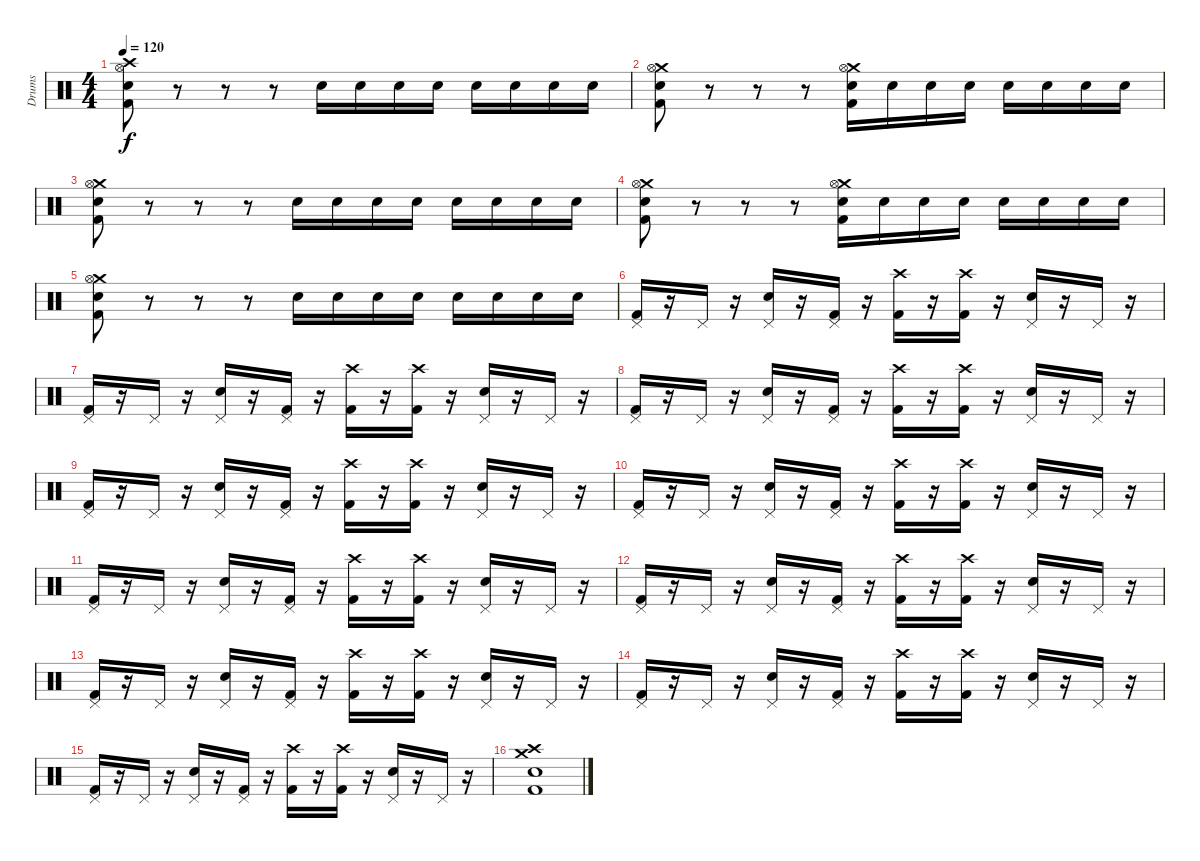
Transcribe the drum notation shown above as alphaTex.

\track ("Drums" "Drums") {instrument percussion}
\staff {score}
\articulation defaults
\ts (4 4)
\tempo 120
\clef neutral
\ks c
("Crash high (hit)" "Hi-Hat (open)" "Snare (hit) 2" "Kick (hit) 2").8{dy f} r.8 r.8 r.8 "Snare (hit) 2".16 "Snare (hit) 2".16 "Snare (hit) 2".16 "Snare (hit) 2".16 "Snare (hit) 2".16 "Snare (hit) 2".16 "Snare (hit) 2".16 "Snare (hit) 2".16 |
("Crash medium (hit)" "Hi-Hat (open)" "Snare (hit) 2" "Kick (hit) 2").8 r.8 r.8 r.8 ("Crash medium (hit)" "Hi-Hat (open)" "Snare (hit) 2" "Kick (hit) 2").16 "Snare (hit) 2".16 "Snare (hit) 2".16 "Snare (hit) 2".16 "Snare (hit) 2".16 "Snare (hit) 2".16 "Snare (hit) 2".16 "Snare (hit) 2".16 |
("Crash medium (hit)" "Hi-Hat (open)" "Snare (hit) 2" "Kick (hit) 2").8 r.8 r.8 r.8 "Snare (hit) 2".16 "Snare (hit) 2".16 "Snare (hit) 2".16 "Snare (hit) 2".16 "Snare (hit) 2".16 "Snare (hit) 2".16 "Snare (hit) 2".16 "Snare (hit) 2".16 |
("Crash medium (hit)" "Hi-Hat (open)" "Snare (hit) 2" "Kick (hit) 2").8 r.8 r.8 r.8 ("Crash medium (hit)" "Hi-Hat (open)" "Snare (hit) 2" "Kick (hit) 2").16 "Snare (hit) 2".16 "Snare (hit) 2".16 "Snare (hit) 2".16 "Snare (hit) 2".16 "Snare (hit) 2".16 "Snare (hit) 2".16 "Snare (hit) 2".16 |
("Crash medium (hit)" "Hi-Hat (open)" "Snare (hit) 2" "Kick (hit) 2").8 r.8 r.8 r.8 "Snare (hit) 2".16 "Snare (hit) 2".16 "Snare (hit) 2".16 "Snare (hit) 2".16 "Snare (hit) 2".16 "Snare (hit) 2".16 "Snare (hit) 2".16 "Snare (hit) 2".16 |
("Pedal Hi-Hat (hit)" "Kick (hit) 2").16 r.16 "Pedal Hi-Hat (hit)".16 r.16 ("Pedal Hi-Hat (hit)" "Snare (hit) 2").16 r.16 ("Pedal Hi-Hat (hit)" "Kick (hit) 2").16 r.16 ("Crash high (hit)" "Kick (hit) 2").16 r.16 ("Crash high (hit)" "Kick (hit) 2").16 r.16 ("Pedal Hi-Hat (hit)" "Snare (hit) 2").16 r.16 "Pedal Hi-Hat (hit)".16 r.16 |
("Pedal Hi-Hat (hit)" "Kick (hit) 2").16 r.16 "Pedal Hi-Hat (hit)".16 r.16 ("Pedal Hi-Hat (hit)" "Snare (hit) 2").16 r.16 ("Pedal Hi-Hat (hit)" "Kick (hit) 2").16 r.16 ("Crash high (hit)" "Kick (hit) 2").16 r.16 ("Crash high (hit)" "Kick (hit) 2").16 r.16 ("Pedal Hi-Hat (hit)" "Snare (hit) 2").16 r.16 "Pedal Hi-Hat (hit)".16 r.16 |
("Pedal Hi-Hat (hit)" "Kick (hit) 2").16 r.16 "Pedal Hi-Hat (hit)".16 r.16 ("Pedal Hi-Hat (hit)" "Snare (hit) 2").16 r.16 ("Pedal Hi-Hat (hit)" "Kick (hit) 2").16 r.16 ("Crash high (hit)" "Kick (hit) 2").16 r.16 ("Crash high (hit)" "Kick (hit) 2").16 r.16 ("Pedal Hi-Hat (hit)" "Snare (hit) 2").16 r.16 "Pedal Hi-Hat (hit)".16 r.16 |
("Pedal Hi-Hat (hit)" "Kick (hit) 2").16 r.16 "Pedal Hi-Hat (hit)".16 r.16 ("Pedal Hi-Hat (hit)" "Snare (hit) 2").16 r.16 ("Pedal Hi-Hat (hit)" "Kick (hit) 2").16 r.16 ("Crash high (hit)" "Kick (hit) 2").16 r.16 ("Crash high (hit)" "Kick (hit) 2").16 r.16 ("Pedal Hi-Hat (hit)" "Snare (hit) 2").16 r.16 "Pedal Hi-Hat (hit)".16 r.16 |
("Pedal Hi-Hat (hit)" "Kick (hit) 2").16 r.16 "Pedal Hi-Hat (hit)".16 r.16 ("Pedal Hi-Hat (hit)" "Snare (hit) 2").16 r.16 ("Pedal Hi-Hat (hit)" "Kick (hit) 2").16 r.16 ("Crash high (hit)" "Kick (hit) 2").16 r.16 ("Crash high (hit)" "Kick (hit) 2").16 r.16 ("Pedal Hi-Hat (hit)" "Snare (hit) 2").16 r.16 "Pedal Hi-Hat (hit)".16 r.16 |
("Pedal Hi-Hat (hit)" "Kick (hit) 2").16 r.16 "Pedal Hi-Hat (hit)".16 r.16 ("Pedal Hi-Hat (hit)" "Snare (hit) 2").16 r.16 ("Pedal Hi-Hat (hit)" "Kick (hit) 2").16 r.16 ("Crash high (hit)" "Kick (hit) 2").16 r.16 ("Crash high (hit)" "Kick (hit) 2").16 r.16 ("Pedal Hi-Hat (hit)" "Snare (hit) 2").16 r.16 "Pedal Hi-Hat (hit)".16 r.16 |
("Pedal Hi-Hat (hit)" "Kick (hit) 2").16 r.16 "Pedal Hi-Hat (hit)".16 r.16 ("Pedal Hi-Hat (hit)" "Snare (hit) 2").16 r.16 ("Pedal Hi-Hat (hit)" "Kick (hit) 2").16 r.16 ("Crash high (hit)" "Kick (hit) 2").16 r.16 ("Crash high (hit)" "Kick (hit) 2").16 r.16 ("Pedal Hi-Hat (hit)" "Snare (hit) 2").16 r.16 "Pedal Hi-Hat (hit)".16 r.16 |
("Pedal Hi-Hat (hit)" "Kick (hit) 2").16 r.16 "Pedal Hi-Hat (hit)".16 r.16 ("Pedal Hi-Hat (hit)" "Snare (hit) 2").16 r.16 ("Pedal Hi-Hat (hit)" "Kick (hit) 2").16 r.16 ("Crash high (hit)" "Kick (hit) 2").16 r.16 ("Crash high (hit)" "Kick (hit) 2").16 r.16 ("Pedal Hi-Hat (hit)" "Snare (hit) 2").16 r.16 "Pedal Hi-Hat (hit)".16 r.16 |
("Pedal Hi-Hat (hit)" "Kick (hit) 2").16 r.16 "Pedal Hi-Hat (hit)".16 r.16 ("Pedal Hi-Hat (hit)" "Snare (hit) 2").16 r.16 ("Pedal Hi-Hat (hit)" "Kick (hit) 2").16 r.16 ("Crash high (hit)" "Kick (hit) 2").16 r.16 ("Crash high (hit)" "Kick (hit) 2").16 r.16 ("Pedal Hi-Hat (hit)" "Snare (hit) 2").16 r.16 "Pedal Hi-Hat (hit)".16 r.16 |
("Pedal Hi-Hat (hit)" "Kick (hit) 2").16 r.16 "Pedal Hi-Hat (hit)".16 r.16 ("Pedal Hi-Hat (hit)" "Snare (hit) 2").16 r.16 ("Pedal Hi-Hat (hit)" "Kick (hit) 2").16 r.16 ("Crash high (hit)" "Kick (hit) 2").16 r.16 ("Crash high (hit)" "Kick (hit) 2").16 r.16 ("Pedal Hi-Hat (hit)" "Snare (hit) 2").16 r.16 "Pedal Hi-Hat (hit)".16 r.16 |
("Crash medium (hit)" "Crash high (hit)" "Snare (hit) 2" "Kick (hit) 2").1
